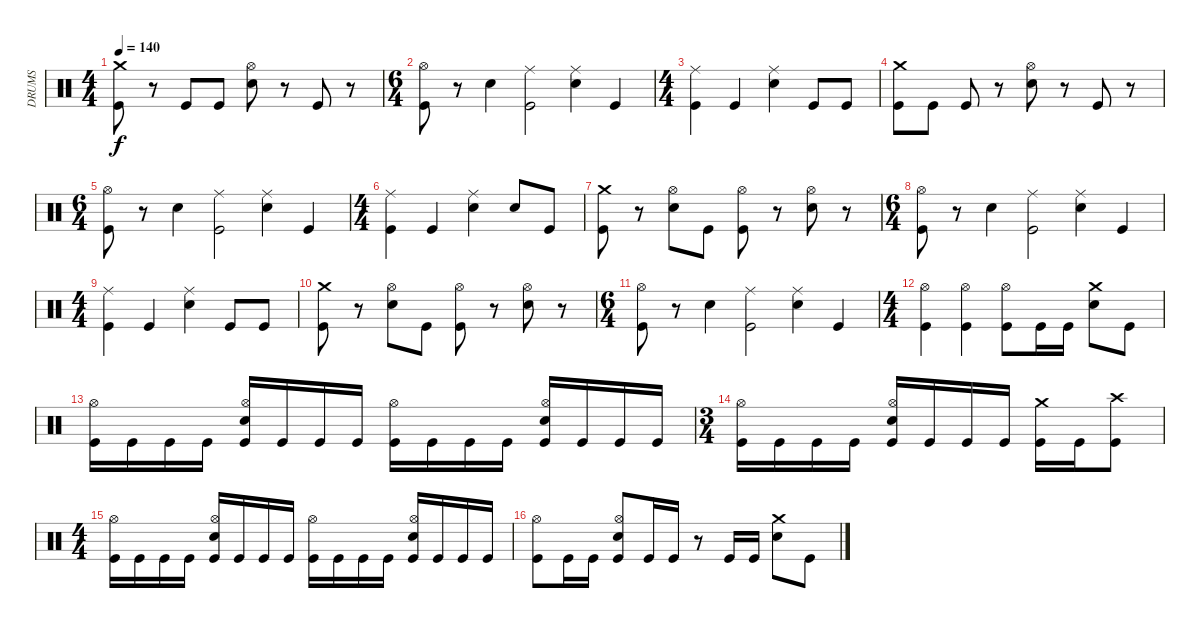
\track ("DRUMS" "DRUMS") {instrument percussion}
\staff {score}
\articulation defaults
\ts (4 4)
\tempo 140
\clef neutral
\ks c
("Crash medium (hit)" "Kick (hit)").8{dy f} r.8 "Kick (hit)".8 "Kick (hit)".8 ("Hi-Hat (open)" "Electric Snare (hit)").8 r.8 "Kick (hit)".8 r.8 |
\ts (6 4)
("Hi-Hat (open)" "Kick (hit)").8 r.8 "Electric Snare (hit)".4 ("Ride (middle)" "Kick (hit)").2 ("Ride (middle)" "Electric Snare (hit)").4 "Kick (hit)".4 |
\ts (4 4)
("Ride (middle)" "Kick (hit)").4 "Kick (hit)".4 ("Ride (middle)" "Electric Snare (hit)").4 "Kick (hit)".8 "Kick (hit)".8 |
("Crash medium (hit)" "Kick (hit)").8 "Kick (hit)".8 "Kick (hit)".8 r.8 ("Hi-Hat (open)" "Electric Snare (hit)").8 r.8 "Kick (hit)".8 r.8 |
\ts (6 4)
("Hi-Hat (open)" "Kick (hit)").8 r.8 "Electric Snare (hit)".4 ("Ride (middle)" "Kick (hit)").2 ("Ride (middle)" "Electric Snare (hit)").4 "Kick (hit)".4 |
\ts (4 4)
("Ride (middle)" "Kick (hit)").4 "Kick (hit)".4 ("Ride (middle)" "Electric Snare (hit)").4 "Electric Snare (hit)".8 "Kick (hit)".8 |
("Crash medium (hit)" "Kick (hit)").8 r.8 ("Hi-Hat (open)" "Electric Snare (hit)").8 "Kick (hit)".8 ("Hi-Hat (open)" "Kick (hit)").8 r.8 ("Hi-Hat (open)" "Electric Snare (hit)").8 r.8 |
\ts (6 4)
("Hi-Hat (open)" "Kick (hit)").8 r.8 "Electric Snare (hit)".4 ("Ride (middle)" "Kick (hit)").2 ("Ride (middle)" "Electric Snare (hit)").4 "Kick (hit)".4 |
\ts (4 4)
("Ride (middle)" "Kick (hit)").4 "Kick (hit)".4 ("Ride (middle)" "Electric Snare (hit)").4 "Kick (hit)".8 "Kick (hit)".8 |
("Crash medium (hit)" "Kick (hit)").8 r.8 ("Hi-Hat (open)" "Electric Snare (hit)").8 "Kick (hit)".8 ("Hi-Hat (open)" "Kick (hit)").8 r.8 ("Hi-Hat (open)" "Electric Snare (hit)").8 r.8 |
\ts (6 4)
("Hi-Hat (open)" "Kick (hit)").8 r.8 "Electric Snare (hit)".4 ("Ride (middle)" "Kick (hit)").2 ("Ride (middle)" "Electric Snare (hit)").4 "Kick (hit)".4 |
\ts (4 4)
("Hi-Hat (open)" "Kick (hit)").4 ("Hi-Hat (open)" "Kick (hit)").4 ("Hi-Hat (open)" "Kick (hit)").8 "Kick (hit)".16 "Kick (hit)".16 ("Crash medium (hit)" "Electric Snare (hit)").8 "Kick (hit)".8 |
("Hi-Hat (open)" "Kick (hit)").16 "Kick (hit)".16 "Kick (hit)".16 "Kick (hit)".16 ("Hi-Hat (open)" "Electric Snare (hit)" "Kick (hit)").16 "Kick (hit)".16 "Kick (hit)".16 "Kick (hit)".16 ("Hi-Hat (open)" "Kick (hit)").16 "Kick (hit)".16 "Kick (hit)".16 "Kick (hit)".16 ("Hi-Hat (open)" "Electric Snare (hit)" "Kick (hit)").16 "Kick (hit)".16 "Kick (hit)".16 "Kick (hit)".16 |
\ts (3 4)
("Hi-Hat (open)" "Kick (hit)").16 "Kick (hit)".16 "Kick (hit)".16 "Kick (hit)".16 ("Hi-Hat (open)" "Electric Snare (hit)" "Kick (hit)").16 "Kick (hit)".16 "Kick (hit)".16 "Kick (hit)".16 ("Crash medium (hit)" "Kick (hit)").16 "Kick (hit)".16 ("Crash high (hit)" "Kick (hit)").8 |
\ts (4 4)
("Hi-Hat (open)" "Kick (hit)").16 "Kick (hit)".16 "Kick (hit)".16 "Kick (hit)".16 ("Hi-Hat (open)" "Electric Snare (hit)" "Kick (hit)").16 "Kick (hit)".16 "Kick (hit)".16 "Kick (hit)".16 ("Hi-Hat (open)" "Kick (hit)").16 "Kick (hit)".16 "Kick (hit)".16 "Kick (hit)".16 ("Hi-Hat (open)" "Electric Snare (hit)" "Kick (hit)").16 "Kick (hit)".16 "Kick (hit)".16 "Kick (hit)".16 |
("Hi-Hat (open)" "Kick (hit)").8 "Kick (hit)".16 "Kick (hit)".16 ("Hi-Hat (open)" "Electric Snare (hit)" "Kick (hit)").8 "Kick (hit)".16 "Kick (hit)".16 r.8 "Kick (hit)".16 "Kick (hit)".16 ("Crash medium (hit)" "Electric Snare (hit)").8 "Kick (hit)".8
